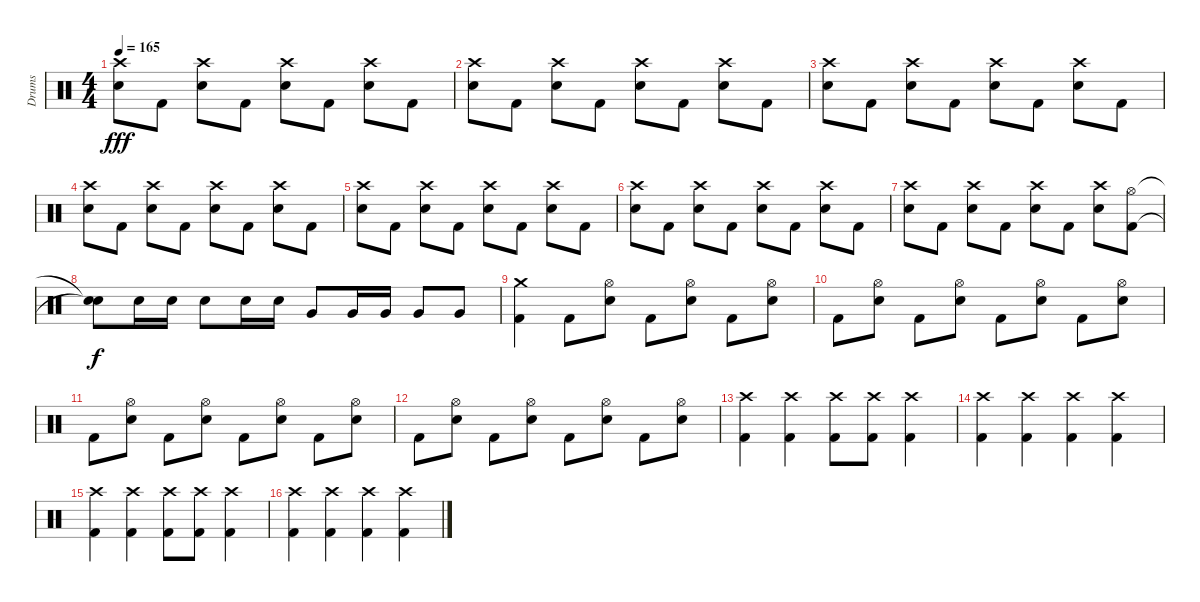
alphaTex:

\track ("Drums" "Drums") {instrument percussion}
\staff {score}
\articulation defaults
\ts (4 4)
\tempo 165
\clef neutral
\ks c
("Crash high (hit)" "Snare (hit) 2").8{dy fff} "Kick (hit) 2".8 ("Crash high (hit)" "Snare (hit) 2").8 "Kick (hit) 2".8 ("Crash high (hit)" "Snare (hit) 2").8 "Kick (hit) 2".8 ("Crash high (hit)" "Snare (hit) 2").8 "Kick (hit) 2".8 |
("Crash high (hit)" "Snare (hit) 2").8 "Kick (hit) 2".8 ("Crash high (hit)" "Snare (hit) 2").8 "Kick (hit) 2".8 ("Crash high (hit)" "Snare (hit) 2").8 "Kick (hit) 2".8 ("Crash high (hit)" "Snare (hit) 2").8 "Kick (hit) 2".8 |
("Crash high (hit)" "Snare (hit) 2").8 "Kick (hit) 2".8 ("Crash high (hit)" "Snare (hit) 2").8 "Kick (hit) 2".8 ("Crash high (hit)" "Snare (hit) 2").8 "Kick (hit) 2".8 ("Crash high (hit)" "Snare (hit) 2").8 "Kick (hit) 2".8 |
("Crash high (hit)" "Snare (hit) 2").8 "Kick (hit) 2".8 ("Crash high (hit)" "Snare (hit) 2").8 "Kick (hit) 2".8 ("Crash high (hit)" "Snare (hit) 2").8 "Kick (hit) 2".8 ("Crash high (hit)" "Snare (hit) 2").8 "Kick (hit) 2".8 |
("Crash high (hit)" "Snare (hit) 2").8 "Kick (hit) 2".8 ("Crash high (hit)" "Snare (hit) 2").8 "Kick (hit) 2".8 ("Crash high (hit)" "Snare (hit) 2").8 "Kick (hit) 2".8 ("Crash high (hit)" "Snare (hit) 2").8 "Kick (hit) 2".8 |
("Crash high (hit)" "Snare (hit) 2").8 "Kick (hit) 2".8 ("Crash high (hit)" "Snare (hit) 2").8 "Kick (hit) 2".8 ("Crash high (hit)" "Snare (hit) 2").8 "Kick (hit) 2".8 ("Crash high (hit)" "Snare (hit) 2").8 "Kick (hit) 2".8 |
("Crash high (hit)" "Snare (hit) 2").8 "Kick (hit) 2".8 ("Crash high (hit)" "Snare (hit) 2").8 "Kick (hit) 2".8 ("Crash high (hit)" "Snare (hit) 2").8 "Kick (hit) 2".8 ("Crash high (hit)" "Snare (hit) 2").8 ("Hi-Hat (open)" "Kick (hit) 2").8 |
("Snare (hit)"{t} "Snare (hit)"{t}).8{dy f} "Snare (hit) 2".16 "Snare (hit) 2".16 "Snare (hit) 2".8 "Snare (hit) 2".16 "Snare (hit) 2".16 "Very Low Tom (hit)".8 "Very Low Tom (hit)".16 "Very Low Tom (hit)".16 "Very Low Tom (hit)".8 "Very Low Tom (hit)".8 |
("Crash medium (hit)" "Kick (hit) 2").4 "Kick (hit) 2".8 ("Hi-Hat (open)" "Snare (hit) 2").8 "Kick (hit) 2".8 ("Hi-Hat (open)" "Snare (hit) 2").8 "Kick (hit) 2".8 ("Hi-Hat (open)" "Snare (hit) 2").8 |
"Kick (hit) 2".8 ("Hi-Hat (open)" "Snare (hit) 2").8 "Kick (hit) 2".8 ("Hi-Hat (open)" "Snare (hit) 2").8 "Kick (hit) 2".8 ("Hi-Hat (open)" "Snare (hit) 2").8 "Kick (hit) 2".8 ("Hi-Hat (open)" "Snare (hit) 2").8 |
"Kick (hit) 2".8 ("Hi-Hat (open)" "Snare (hit) 2").8 "Kick (hit) 2".8 ("Hi-Hat (open)" "Snare (hit) 2").8 "Kick (hit) 2".8 ("Hi-Hat (open)" "Snare (hit) 2").8 "Kick (hit) 2".8 ("Hi-Hat (open)" "Snare (hit) 2").8 |
"Kick (hit) 2".8 ("Hi-Hat (open)" "Snare (hit) 2").8 "Kick (hit) 2".8 ("Hi-Hat (open)" "Snare (hit) 2").8 "Kick (hit) 2".8 ("Hi-Hat (open)" "Snare (hit) 2").8 "Kick (hit) 2".8 ("Hi-Hat (open)" "Snare (hit) 2").8 |
("Crash high (hit)" "Kick (hit) 2").4 ("Crash high (hit)" "Kick (hit) 2").4 ("Crash high (hit)" "Kick (hit) 2").8 ("Crash high (hit)" "Kick (hit) 2").8 ("Crash high (hit)" "Kick (hit) 2").4 |
("Crash high (hit)" "Kick (hit) 2").4 ("Crash high (hit)" "Kick (hit) 2").4 ("Crash high (hit)" "Kick (hit) 2").4 ("Crash high (hit)" "Kick (hit) 2").4 |
("Crash high (hit)" "Kick (hit) 2").4 ("Crash high (hit)" "Kick (hit) 2").4 ("Crash high (hit)" "Kick (hit) 2").8 ("Crash high (hit)" "Kick (hit) 2").8 ("Crash high (hit)" "Kick (hit) 2").4 |
("Crash high (hit)" "Kick (hit) 2").4 ("Crash high (hit)" "Kick (hit) 2").4 ("Crash high (hit)" "Kick (hit) 2").4 ("Crash high (hit)" "Kick (hit) 2").4
